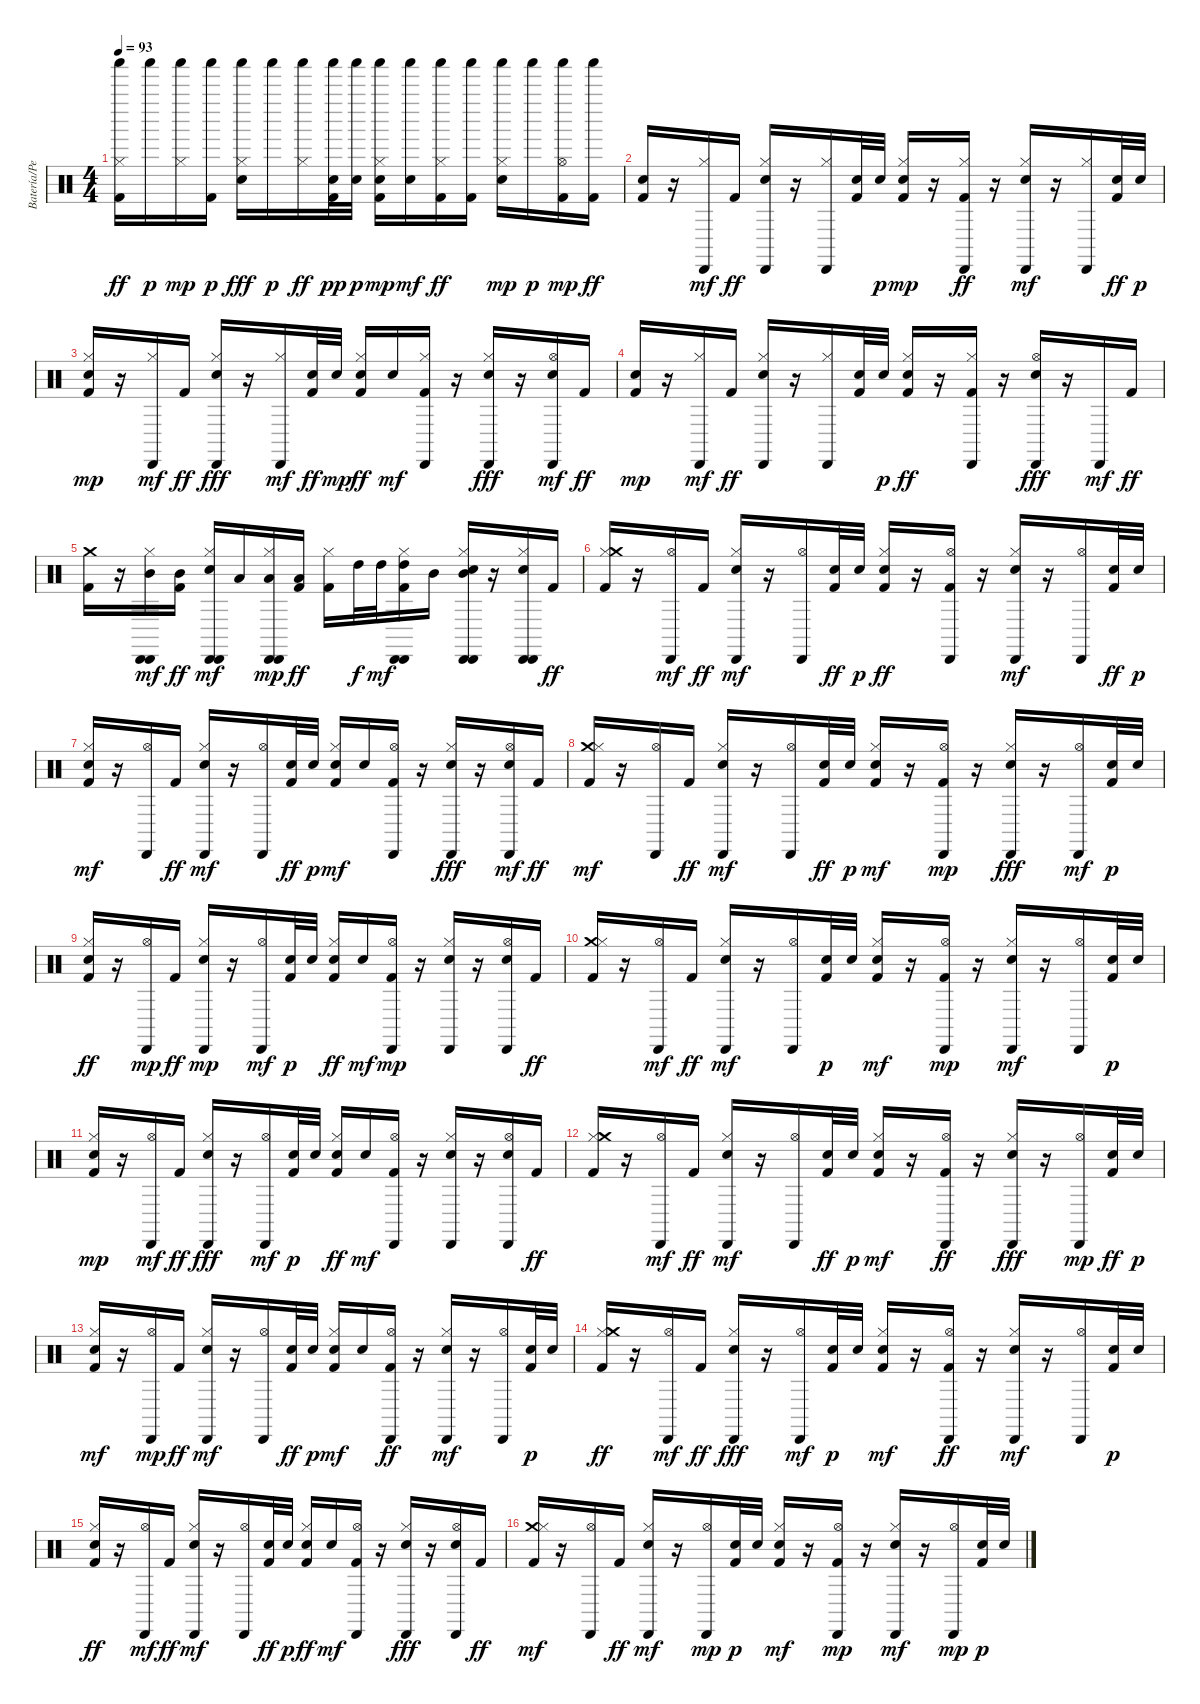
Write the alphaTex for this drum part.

\track ("Batería/Percusión" "Batería/Pe") {instrument percussion}
\staff {score}
\articulation defaults
\ts (4 4)
\tempo 93
\clef neutral
\ks c
("Shaker (hit)" "Hi-Hat (closed)" "Kick (hit) 2").16{dy ff} "Shaker (hit)".16{dy p} ("Shaker (hit)" "Hi-Hat (closed)").16{dy mp} ("Kick (hit) 2" "Shaker (hit)").16{dy p} ("Shaker (hit)" "Hi-Hat (closed)" "Electric Snare (hit)").16{dy fff} "Shaker (hit)".16{dy p} ("Shaker (hit)" "Hi-Hat (closed)").16{dy ff} ("Electric Snare (hit)" "Kick (hit) 2" "Shaker (hit)").32{dy pp} ("Shaker (hit)" "Electric Snare (hit)").32{dy p} ("Shaker (hit)" "Hi-Hat (closed)" "Kick (hit) 2" "Electric Snare (hit)").16{dy mp} ("Shaker (hit)" "Electric Snare (hit)").16{dy mf} ("Hi-Hat (closed)" "Shaker (hit)" "Kick (hit) 2").16{dy ff} ("Shaker (hit)" "Kick (hit) 2").16 ("Electric Snare (hit)" "Hi-Hat (closed)" "Shaker (hit)").16{dy mp} "Shaker (hit)".16{dy p} ("Kick (hit) 2" "Hi-Hat (open)" "Shaker (hit)").16{dy mp} ("Shaker (hit)" "Kick (hit) 2").16{dy ff} |
("Electric Snare (hit)" "Kick (hit) 2").16 r.16 ("Hi-Hat (closed)" "Cabasa (hit)").16{dy mf} "Kick (hit) 2".16{dy ff} ("Electric Snare (hit)" "Cabasa (hit)" "Hi-Hat (closed)").16 r.16 ("Cabasa (hit)" "Hi-Hat (closed)").16 ("Electric Snare (hit)" "Kick (hit) 2").32 "Electric Snare (hit)".32{dy p} ("Hi-Hat (closed)" "Kick (hit) 2" "Electric Snare (hit)").16{dy mp} r.16 ("Hi-Hat (closed)" "Cabasa (hit)" "Kick (hit) 2").16{dy ff} r.16 ("Electric Snare (hit)" "Hi-Hat (closed)" "Cabasa (hit)").16{dy mf} r.16 ("Hi-Hat (closed)" "Cabasa (hit)").16 ("Electric Snare (hit)" "Kick (hit) 2").32{dy ff} "Electric Snare (hit)".32{dy p} |
("Kick (hit) 2" "Hi-Hat (closed)" "Electric Snare (hit)").16{dy mp} r.16 ("Hi-Hat (closed)" "Cabasa (hit)").16{dy mf} "Kick (hit) 2".16{dy ff} ("Hi-Hat (closed)" "Cabasa (hit)" "Electric Snare (hit)").16{dy fff} r.16 ("Hi-Hat (closed)" "Cabasa (hit)").16{dy mf} ("Electric Snare (hit)" "Kick (hit) 2").32{dy ff} "Electric Snare (hit)".32{dy mp} ("Electric Snare (hit)" "Kick (hit) 2" "Hi-Hat (closed)").16{dy ff} "Electric Snare (hit)".16{dy mf} ("Kick (hit) 2" "Cabasa (hit)" "Hi-Hat (closed)").16 r.16 ("Cabasa (hit)" "Electric Snare (hit)" "Hi-Hat (closed)").16{dy fff} r.16 ("Cabasa (hit)" "Electric Snare (hit)" "Hi-Hat (open)").16{dy mf} "Kick (hit) 2".16{dy ff} |
("Kick (hit) 2" "Electric Snare (hit)").16{dy mp} r.16 ("Cabasa (hit)" "Hi-Hat (closed)").16{dy mf} "Kick (hit) 2".16{dy ff} ("Electric Snare (hit)" "Cabasa (hit)" "Hi-Hat (closed)").16 r.16 ("Cabasa (hit)" "Hi-Hat (closed)").16 ("Electric Snare (hit)" "Kick (hit) 2").32 "Electric Snare (hit)".32{dy p} ("Electric Snare (hit)" "Hi-Hat (closed)" "Kick (hit) 2").16{dy ff} r.16 ("Hi-Hat (closed)" "Cabasa (hit)" "Kick (hit) 2").16 r.16 ("Hi-Hat (open)" "Cabasa (hit)" "Electric Snare (hit)").16{dy fff} r.16 "Cabasa (hit)".16{dy mf} "Kick (hit) 2".16{dy ff} |
("Kick (hit) 2" "Crash medium (hit)").16 r.16 ("Hi-Hat (closed)" "Cabasa (hit)" "Cabasa (hit)" "Mid Tom (hit)").16{dy mf} ("Mid Tom (hit)" "Kick (hit) 2").16{dy ff} ("Cabasa (hit)" "Electric Snare (hit)" "Hi-Hat (closed)" "Cabasa (hit)").16{dy mf} "Low Tom (hit)".16 ("Hi-Hat (closed)" "Cabasa (hit)" "Cabasa (hit)" "Low Tom (hit)").16{dy mp} ("Low Tom (hit)" "Kick (hit) 2").16{dy ff} ("Hi-Hat (closed)" "Kick (hit) 2").16 "High Tom (hit)".32{dy f} "High Tom (hit)".32{dy mf} ("Kick (hit) 2" "Cabasa (hit)" "Cabasa (hit)" "Hi-Hat (closed)" "High Tom (hit)").16 "Mid Tom (hit)".16 ("Electric Snare (hit)" "Cabasa (hit)" "Mid Tom (hit)" "Hi-Hat (closed)" "Cabasa (hit)").16 r.16 ("Cabasa (hit)" "Electric Snare (hit)" "Cabasa (hit)" "Hi-Hat (closed)").16 "Kick (hit) 2".16{dy ff} |
("Hi-Hat (closed)" "Crash medium (hit)" "Kick (hit) 2").16 r.16 ("Cabasa (hit)" "Hi-Hat (open)").16{dy mf} "Kick (hit) 2".16{dy ff} ("Hi-Hat (closed)" "Electric Snare (hit)" "Cabasa (hit)").16{dy mf} r.16 ("Cabasa (hit)" "Hi-Hat (open)").16 ("Electric Snare (hit)" "Kick (hit) 2").32{dy ff} "Electric Snare (hit)".32{dy p} ("Hi-Hat (closed)" "Electric Snare (hit)" "Kick (hit) 2").16{dy ff} r.16 ("Cabasa (hit)" "Hi-Hat (open)" "Kick (hit) 2").16 r.16 ("Electric Snare (hit)" "Hi-Hat (closed)" "Cabasa (hit)").16{dy mf} r.16 ("Cabasa (hit)" "Hi-Hat (open)").16 ("Electric Snare (hit)" "Kick (hit) 2").32{dy ff} "Electric Snare (hit)".32{dy p} |
("Electric Snare (hit)" "Kick (hit) 2" "Hi-Hat (closed)").16{dy mf} r.16 ("Hi-Hat (open)" "Cabasa (hit)").16 "Kick (hit) 2".16{dy ff} ("Cabasa (hit)" "Electric Snare (hit)" "Hi-Hat (closed)").16{dy mf} r.16 ("Hi-Hat (open)" "Cabasa (hit)").16 ("Electric Snare (hit)" "Kick (hit) 2").32{dy ff} "Electric Snare (hit)".32{dy p} ("Kick (hit) 2" "Electric Snare (hit)" "Hi-Hat (closed)").16{dy mf} "Electric Snare (hit)".16 ("Kick (hit) 2" "Cabasa (hit)" "Hi-Hat (open)").16 r.16 ("Hi-Hat (closed)" "Cabasa (hit)" "Electric Snare (hit)").16{dy fff} r.16 ("Hi-Hat (open)" "Electric Snare (hit)" "Cabasa (hit)").16{dy mf} "Kick (hit) 2".16{dy ff} |
("Crash medium (hit)" "Kick (hit) 2" "Hi-Hat (closed)").16{dy mf} r.16 ("Hi-Hat (open)" "Cabasa (hit)").16 "Kick (hit) 2".16{dy ff} ("Cabasa (hit)" "Electric Snare (hit)" "Hi-Hat (closed)").16{dy mf} r.16 ("Hi-Hat (open)" "Cabasa (hit)").16 ("Electric Snare (hit)" "Kick (hit) 2").32{dy ff} "Electric Snare (hit)".32{dy p} ("Kick (hit) 2" "Electric Snare (hit)" "Hi-Hat (closed)").16{dy mf} r.16 ("Cabasa (hit)" "Kick (hit) 2" "Hi-Hat (open)").16{dy mp} r.16 ("Cabasa (hit)" "Hi-Hat (closed)" "Electric Snare (hit)").16{dy fff} r.16 ("Hi-Hat (open)" "Cabasa (hit)").16{dy mf} ("Kick (hit) 2" "Electric Snare (hit)").32{dy p} "Electric Snare (hit)".32 |
("Hi-Hat (closed)" "Electric Snare (hit)" "Kick (hit) 2").16{dy ff} r.16 ("Cabasa (hit)" "Hi-Hat (open)").16{dy mp} "Kick (hit) 2".16{dy ff} ("Hi-Hat (closed)" "Electric Snare (hit)" "Cabasa (hit)").16{dy mp} r.16 ("Cabasa (hit)" "Hi-Hat (open)").16{dy mf} ("Kick (hit) 2" "Electric Snare (hit)").32{dy p} "Electric Snare (hit)".32 ("Hi-Hat (closed)" "Electric Snare (hit)" "Kick (hit) 2").16{dy ff} "Electric Snare (hit)".16{dy mf} ("Hi-Hat (open)" "Kick (hit) 2" "Cabasa (hit)").16{dy mp} r.16 ("Hi-Hat (closed)" "Electric Snare (hit)" "Cabasa (hit)").16 r.16 ("Electric Snare (hit)" "Cabasa (hit)" "Hi-Hat (open)").16 "Kick (hit) 2".16{dy ff} |
("Crash medium (hit)" "Hi-Hat (closed)" "Kick (hit) 2").16 r.16 ("Cabasa (hit)" "Hi-Hat (open)").16{dy mf} "Kick (hit) 2".16{dy ff} ("Hi-Hat (closed)" "Electric Snare (hit)" "Cabasa (hit)").16{dy mf} r.16 ("Hi-Hat (open)" "Cabasa (hit)").16 ("Kick (hit) 2" "Electric Snare (hit)").32{dy p} "Electric Snare (hit)".32 ("Electric Snare (hit)" "Kick (hit) 2" "Hi-Hat (closed)").16{dy mf} r.16 ("Kick (hit) 2" "Cabasa (hit)" "Hi-Hat (open)").16{dy mp} r.16 ("Cabasa (hit)" "Electric Snare (hit)" "Hi-Hat (closed)").16{dy mf} r.16 ("Cabasa (hit)" "Hi-Hat (open)").16 ("Kick (hit) 2" "Electric Snare (hit)").32{dy p} "Electric Snare (hit)".32 |
("Kick (hit) 2" "Hi-Hat (closed)" "Electric Snare (hit)").16{dy mp} r.16 ("Hi-Hat (open)" "Cabasa (hit)").16{dy mf} "Kick (hit) 2".16{dy ff} ("Hi-Hat (closed)" "Cabasa (hit)" "Electric Snare (hit)").16{dy fff} r.16 ("Hi-Hat (open)" "Cabasa (hit)").16{dy mf} ("Kick (hit) 2" "Electric Snare (hit)").32{dy p} "Electric Snare (hit)".32 ("Electric Snare (hit)" "Hi-Hat (closed)" "Kick (hit) 2").16{dy ff} "Electric Snare (hit)".16{dy mf} ("Hi-Hat (open)" "Kick (hit) 2" "Cabasa (hit)").16 r.16 ("Electric Snare (hit)" "Hi-Hat (closed)" "Cabasa (hit)").16 r.16 ("Electric Snare (hit)" "Hi-Hat (open)" "Cabasa (hit)").16 "Kick (hit) 2".16{dy ff} |
("Hi-Hat (closed)" "Crash medium (hit)" "Kick (hit) 2").16 r.16 ("Cabasa (hit)" "Hi-Hat (open)").16{dy mf} "Kick (hit) 2".16{dy ff} ("Electric Snare (hit)" "Cabasa (hit)" "Hi-Hat (closed)").16{dy mf} r.16 ("Hi-Hat (open)" "Cabasa (hit)").16 ("Electric Snare (hit)" "Kick (hit) 2").32{dy ff} "Electric Snare (hit)".32{dy p} ("Electric Snare (hit)" "Kick (hit) 2" "Hi-Hat (closed)").16{dy mf} r.16 ("Cabasa (hit)" "Hi-Hat (open)" "Kick (hit) 2").16{dy ff} r.16 ("Cabasa (hit)" "Hi-Hat (closed)" "Electric Snare (hit)").16{dy fff} r.16 ("Cabasa (hit)" "Hi-Hat (open)").16{dy mp} ("Electric Snare (hit)" "Kick (hit) 2").32{dy ff} "Electric Snare (hit)".32{dy p} |
("Electric Snare (hit)" "Kick (hit) 2" "Hi-Hat (closed)").16{dy mf} r.16 ("Cabasa (hit)" "Hi-Hat (open)").16{dy mp} "Kick (hit) 2".16{dy ff} ("Hi-Hat (closed)" "Electric Snare (hit)" "Cabasa (hit)").16{dy mf} r.16 ("Cabasa (hit)" "Hi-Hat (open)").16 ("Electric Snare (hit)" "Kick (hit) 2").32{dy ff} "Electric Snare (hit)".32{dy p} ("Electric Snare (hit)" "Kick (hit) 2" "Hi-Hat (closed)").16{dy mf} "Electric Snare (hit)".16 ("Hi-Hat (open)" "Cabasa (hit)" "Kick (hit) 2").16{dy ff} r.16 ("Hi-Hat (closed)" "Electric Snare (hit)" "Cabasa (hit)").16{dy mf} r.16 ("Hi-Hat (open)" "Cabasa (hit)").16 ("Kick (hit) 2" "Electric Snare (hit)").32{dy p} "Electric Snare (hit)".32 |
("Hi-Hat (closed)" "Kick (hit) 2" "Crash medium (hit)").16{dy ff} r.16 ("Cabasa (hit)" "Hi-Hat (open)").16{dy mf} "Kick (hit) 2".16{dy ff} ("Hi-Hat (closed)" "Cabasa (hit)" "Electric Snare (hit)").16{dy fff} r.16 ("Cabasa (hit)" "Hi-Hat (open)").16{dy mf} ("Kick (hit) 2" "Electric Snare (hit)").32{dy p} "Electric Snare (hit)".32 ("Electric Snare (hit)" "Kick (hit) 2" "Hi-Hat (closed)").16{dy mf} r.16 ("Hi-Hat (open)" "Cabasa (hit)" "Kick (hit) 2").16{dy ff} r.16 ("Electric Snare (hit)" "Hi-Hat (closed)" "Cabasa (hit)").16{dy mf} r.16 ("Hi-Hat (open)" "Cabasa (hit)").16 ("Kick (hit) 2" "Electric Snare (hit)").32{dy p} "Electric Snare (hit)".32 |
("Hi-Hat (closed)" "Electric Snare (hit)" "Kick (hit) 2").16{dy ff} r.16 ("Hi-Hat (open)" "Cabasa (hit)").16{dy mf} "Kick (hit) 2".16{dy ff} ("Hi-Hat (closed)" "Electric Snare (hit)" "Cabasa (hit)").16{dy mf} r.16 ("Cabasa (hit)" "Hi-Hat (open)").16 ("Electric Snare (hit)" "Kick (hit) 2").32{dy ff} "Electric Snare (hit)".32{dy p} ("Hi-Hat (closed)" "Electric Snare (hit)" "Kick (hit) 2").16{dy ff} "Electric Snare (hit)".16{dy mf} ("Kick (hit) 2" "Hi-Hat (open)" "Cabasa (hit)").16 r.16 ("Cabasa (hit)" "Hi-Hat (closed)" "Electric Snare (hit)").16{dy fff} r.16 ("Hi-Hat (open)" "Cabasa (hit)" "Electric Snare (hit)").16 "Kick (hit) 2".16{dy ff} |
("Kick (hit) 2" "Crash medium (hit)" "Hi-Hat (closed)").16{dy mf} r.16 ("Cabasa (hit)" "Hi-Hat (open)").16 "Kick (hit) 2".16{dy ff} ("Electric Snare (hit)" "Hi-Hat (closed)" "Cabasa (hit)").16{dy mf} r.16 ("Cabasa (hit)" "Hi-Hat (open)").16{dy mp} ("Kick (hit) 2" "Electric Snare (hit)").32{dy p} "Electric Snare (hit)".32 ("Electric Snare (hit)" "Kick (hit) 2" "Hi-Hat (closed)").16{dy mf} r.16 ("Kick (hit) 2" "Cabasa (hit)" "Hi-Hat (open)").16{dy mp} r.16 ("Electric Snare (hit)" "Cabasa (hit)" "Hi-Hat (closed)").16{dy mf} r.16 ("Cabasa (hit)" "Hi-Hat (open)").16{dy mp} ("Kick (hit) 2" "Electric Snare (hit)").32{dy p} "Electric Snare (hit)".32
